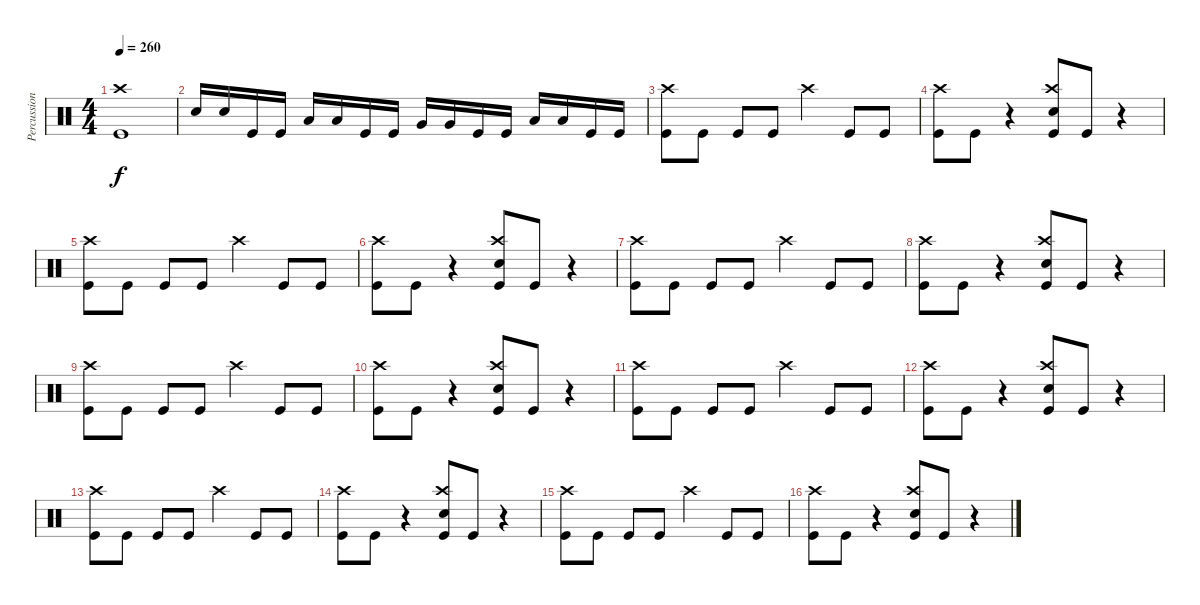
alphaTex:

\track ("Percussion" "Percussion") {instrument percussion}
\staff {score}
\articulation defaults
\ts (4 4)
\tempo 260
\clef neutral
\ks c
("Kick (hit)" "Crash high (hit)").1{dy f} |
"Snare (hit) 2".16 "Snare (hit) 2".16 "Kick (hit)".16 "Kick (hit)".16 "Low Tom (hit)".16 "Low Tom (hit)".16 "Kick (hit)".16 "Kick (hit)".16 "Very Low Tom (hit)".16 "Very Low Tom (hit)".16 "Kick (hit)".16 "Kick (hit)".16 "Low Tom (hit)".16 "Low Tom (hit)".16 "Kick (hit)".16 "Kick (hit)".16 |
("Kick (hit)" "Crash high (hit)").8 "Kick (hit)".8 "Kick (hit)".8 "Kick (hit)".8 "Crash high (hit)".4 "Kick (hit)".8 "Kick (hit)".8 |
("Kick (hit)" "Crash high (hit)").8 "Kick (hit)".8 r.4 ("Kick (hit)" "Snare (hit) 2" "Crash high (hit)").8 "Kick (hit)".8 r.4 |
("Kick (hit)" "Crash high (hit)").8 "Kick (hit)".8 "Kick (hit)".8 "Kick (hit)".8 "Crash high (hit)".4 "Kick (hit)".8 "Kick (hit)".8 |
("Kick (hit)" "Crash high (hit)").8 "Kick (hit)".8 r.4 ("Kick (hit)" "Snare (hit) 2" "Crash high (hit)").8 "Kick (hit)".8 r.4 |
("Kick (hit)" "Crash high (hit)").8 "Kick (hit)".8 "Kick (hit)".8 "Kick (hit)".8 "Crash high (hit)".4 "Kick (hit)".8 "Kick (hit)".8 |
("Kick (hit)" "Crash high (hit)").8 "Kick (hit)".8 r.4 ("Kick (hit)" "Snare (hit) 2" "Crash high (hit)").8 "Kick (hit)".8 r.4 |
("Kick (hit)" "Crash high (hit)").8 "Kick (hit)".8 "Kick (hit)".8 "Kick (hit)".8 "Crash high (hit)".4 "Kick (hit)".8 "Kick (hit)".8 |
("Kick (hit)" "Crash high (hit)").8 "Kick (hit)".8 r.4 ("Kick (hit)" "Snare (hit) 2" "Crash high (hit)").8 "Kick (hit)".8 r.4 |
("Kick (hit)" "Crash high (hit)").8 "Kick (hit)".8 "Kick (hit)".8 "Kick (hit)".8 "Crash high (hit)".4 "Kick (hit)".8 "Kick (hit)".8 |
("Kick (hit)" "Crash high (hit)").8 "Kick (hit)".8 r.4 ("Kick (hit)" "Snare (hit) 2" "Crash high (hit)").8 "Kick (hit)".8 r.4 |
("Kick (hit)" "Crash high (hit)").8 "Kick (hit)".8 "Kick (hit)".8 "Kick (hit)".8 "Crash high (hit)".4 "Kick (hit)".8 "Kick (hit)".8 |
("Kick (hit)" "Crash high (hit)").8 "Kick (hit)".8 r.4 ("Kick (hit)" "Snare (hit) 2" "Crash high (hit)").8 "Kick (hit)".8 r.4 |
("Kick (hit)" "Crash high (hit)").8 "Kick (hit)".8 "Kick (hit)".8 "Kick (hit)".8 "Crash high (hit)".4 "Kick (hit)".8 "Kick (hit)".8 |
("Kick (hit)" "Crash high (hit)").8 "Kick (hit)".8 r.4 ("Kick (hit)" "Snare (hit) 2" "Crash high (hit)").8 "Kick (hit)".8 r.4
